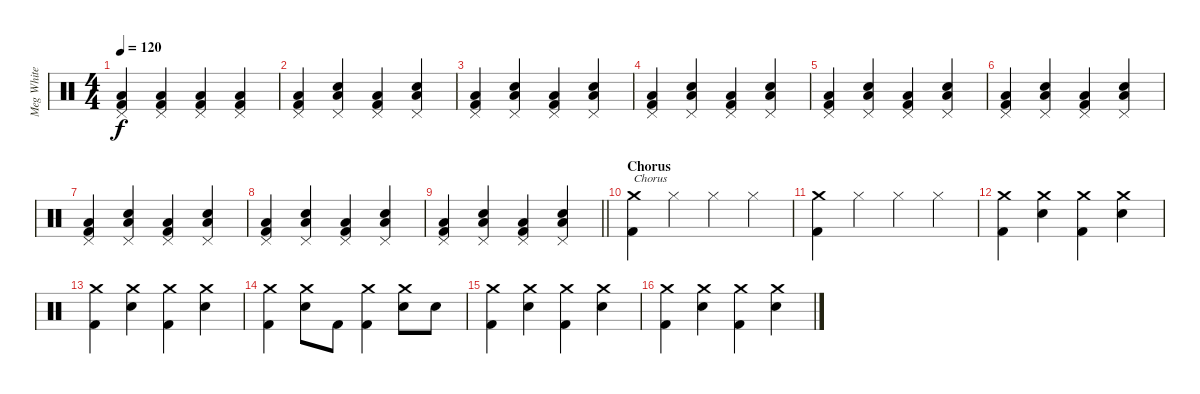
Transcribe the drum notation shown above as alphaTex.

\track ("Meg White" "Meg White") {instrument percussion}
\staff {score}
\articulation defaults
\ts (4 4)
\tempo 120
\clef neutral
\ks c
("Pedal Hi-Hat (hit)" "Low Floor Tom (hit)" "Kick (hit) 2").4{dy f} ("Pedal Hi-Hat (hit)" "Low Floor Tom (hit)" "Kick (hit) 2").4 ("Pedal Hi-Hat (hit)" "Low Floor Tom (hit)" "Kick (hit) 2").4 ("Pedal Hi-Hat (hit)" "Low Floor Tom (hit)" "Kick (hit) 2").4 |
("Pedal Hi-Hat (hit)" "Low Floor Tom (hit)" "Kick (hit) 2").4 ("Pedal Hi-Hat (hit)" "Low Floor Tom (hit)" "Snare (hit) 2").4 ("Pedal Hi-Hat (hit)" "Low Floor Tom (hit)" "Kick (hit) 2").4 ("Pedal Hi-Hat (hit)" "Low Floor Tom (hit)" "Snare (hit) 2").4 |
("Pedal Hi-Hat (hit)" "Low Floor Tom (hit)" "Kick (hit) 2").4 ("Pedal Hi-Hat (hit)" "Low Floor Tom (hit)" "Snare (hit) 2").4 ("Pedal Hi-Hat (hit)" "Low Floor Tom (hit)" "Kick (hit) 2").4 ("Pedal Hi-Hat (hit)" "Low Floor Tom (hit)" "Snare (hit) 2").4 |
("Pedal Hi-Hat (hit)" "Low Floor Tom (hit)" "Kick (hit) 2").4 ("Pedal Hi-Hat (hit)" "Low Floor Tom (hit)" "Snare (hit) 2").4 ("Pedal Hi-Hat (hit)" "Low Floor Tom (hit)" "Kick (hit) 2").4 ("Pedal Hi-Hat (hit)" "Low Floor Tom (hit)" "Snare (hit) 2").4 |
("Pedal Hi-Hat (hit)" "Low Floor Tom (hit)" "Kick (hit) 2").4 ("Pedal Hi-Hat (hit)" "Low Floor Tom (hit)" "Snare (hit) 2").4 ("Pedal Hi-Hat (hit)" "Low Floor Tom (hit)" "Kick (hit) 2").4 ("Pedal Hi-Hat (hit)" "Low Floor Tom (hit)" "Snare (hit) 2").4 |
("Pedal Hi-Hat (hit)" "Low Floor Tom (hit)" "Kick (hit) 2").4 ("Pedal Hi-Hat (hit)" "Low Floor Tom (hit)" "Snare (hit) 2").4 ("Pedal Hi-Hat (hit)" "Low Floor Tom (hit)" "Kick (hit) 2").4 ("Pedal Hi-Hat (hit)" "Low Floor Tom (hit)" "Snare (hit) 2").4 |
("Pedal Hi-Hat (hit)" "Low Floor Tom (hit)" "Kick (hit) 2").4 ("Pedal Hi-Hat (hit)" "Low Floor Tom (hit)" "Snare (hit) 2").4 ("Pedal Hi-Hat (hit)" "Low Floor Tom (hit)" "Kick (hit) 2").4 ("Pedal Hi-Hat (hit)" "Low Floor Tom (hit)" "Snare (hit) 2").4 |
("Pedal Hi-Hat (hit)" "Low Floor Tom (hit)" "Kick (hit) 2").4 ("Pedal Hi-Hat (hit)" "Low Floor Tom (hit)" "Snare (hit) 2").4 ("Pedal Hi-Hat (hit)" "Low Floor Tom (hit)" "Kick (hit) 2").4 ("Pedal Hi-Hat (hit)" "Low Floor Tom (hit)" "Snare (hit) 2").4 |
\barLineRight lightlight
("Pedal Hi-Hat (hit)" "Low Floor Tom (hit)" "Kick (hit) 2").4 ("Pedal Hi-Hat (hit)" "Low Floor Tom (hit)" "Snare (hit) 2").4 ("Pedal Hi-Hat (hit)" "Low Floor Tom (hit)" "Kick (hit) 2").4 ("Pedal Hi-Hat (hit)" "Low Floor Tom (hit)" "Snare (hit) 2").4 |
\section ("" "Chorus ")
("Crash medium (hit)" "Kick (hit) 2").4{txt "Chorus"} "Hi-Hat (closed)".4 "Hi-Hat (closed)".4 "Hi-Hat (closed)".4 |
("Crash medium (hit)" "Kick (hit) 2").4 "Hi-Hat (closed)".4 "Hi-Hat (closed)".4 "Hi-Hat (closed)".4 |
("Crash medium (hit)" "Kick (hit) 2").4 ("Crash medium (hit)" "Snare (hit) 2").4 ("Crash medium (hit)" "Kick (hit) 2").4 ("Crash medium (hit)" "Snare (hit) 2").4 |
("Crash medium (hit)" "Kick (hit) 2").4 ("Crash medium (hit)" "Snare (hit) 2").4 ("Crash medium (hit)" "Kick (hit) 2").4 ("Crash medium (hit)" "Snare (hit) 2").4 |
("Crash medium (hit)" "Kick (hit) 2").4 ("Crash medium (hit)" "Snare (hit) 2").8 "Kick (hit) 2".8 ("Crash medium (hit)" "Kick (hit) 2").4 ("Crash medium (hit)" "Snare (hit) 2").8 "Snare (hit) 2".8 |
("Crash medium (hit)" "Kick (hit) 2").4 ("Crash medium (hit)" "Snare (hit) 2").4 ("Crash medium (hit)" "Kick (hit) 2").4 ("Crash medium (hit)" "Snare (hit) 2").4 |
("Crash medium (hit)" "Kick (hit) 2").4 ("Crash medium (hit)" "Snare (hit) 2").4 ("Crash medium (hit)" "Kick (hit) 2").4 ("Crash medium (hit)" "Snare (hit) 2").4
